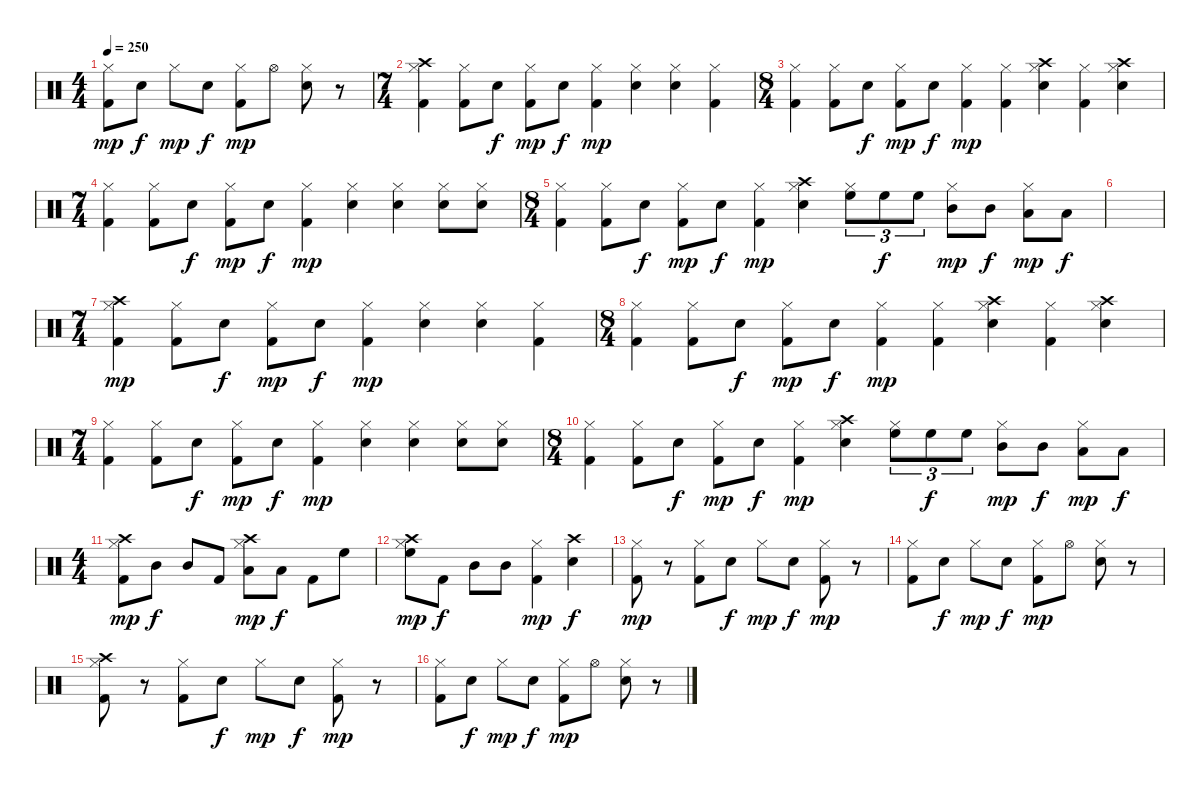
\track "" {instrument percussion}
\staff {score}
\articulation defaults
\ts (4 4)
\tempo 250
\clef neutral
\ks c
("Kick (hit) 2" "Hi-Hat (closed)").8{dy mp} "Electric Snare (hit)".8{dy f} "Hi-Hat (closed)".8{dy mp} "Electric Snare (hit)".8{dy f} ("Kick (hit) 2" "Hi-Hat (closed)").8{dy mp} "Hi-Hat (open)".8 ("Electric Snare (hit)" "Hi-Hat (closed)").8 r.8 |
\ts (7 4)
("Kick (hit) 2" "Hi-Hat (closed)" "Crash high (hit)").4 ("Kick (hit) 2" "Hi-Hat (closed)").8 "Electric Snare (hit)".8{dy f} ("Kick (hit) 2" "Hi-Hat (closed)").8{dy mp} "Electric Snare (hit)".8{dy f} ("Kick (hit) 2" "Hi-Hat (closed)").4{dy mp} ("Electric Snare (hit)" "Hi-Hat (closed)").4 ("Electric Snare (hit)" "Hi-Hat (closed)").4 ("Kick (hit) 2" "Hi-Hat (closed)").4 |
\ts (8 4)
("Kick (hit) 2" "Hi-Hat (closed)").4 ("Kick (hit) 2" "Hi-Hat (closed)").8 "Electric Snare (hit)".8{dy f} ("Kick (hit) 2" "Hi-Hat (closed)").8{dy mp} "Electric Snare (hit)".8{dy f} ("Kick (hit) 2" "Hi-Hat (closed)").4{dy mp} ("Kick (hit) 2" "Hi-Hat (closed)").4 ("Electric Snare (hit)" "Hi-Hat (closed)" "Crash high (hit)").4 ("Kick (hit) 2" "Hi-Hat (closed)").4 ("Electric Snare (hit)" "Hi-Hat (closed)" "Crash high (hit)").4 |
\ts (7 4)
("Kick (hit) 2" "Hi-Hat (closed)").4 ("Kick (hit) 2" "Hi-Hat (closed)").8 "Electric Snare (hit)".8{dy f} ("Kick (hit) 2" "Hi-Hat (closed)").8{dy mp} "Electric Snare (hit)".8{dy f} ("Kick (hit) 2" "Hi-Hat (closed)").4{dy mp} ("Electric Snare (hit)" "Hi-Hat (closed)").4 ("Electric Snare (hit)" "Hi-Hat (closed)").4 ("Electric Snare (hit)" "Hi-Hat (closed)").8 ("Electric Snare (hit)" "Hi-Hat (closed)").8 |
\ts (8 4)
("Kick (hit) 2" "Hi-Hat (closed)").4 ("Kick (hit) 2" "Hi-Hat (closed)").8 "Electric Snare (hit)".8{dy f} ("Kick (hit) 2" "Hi-Hat (closed)").8{dy mp} "Electric Snare (hit)".8{dy f} ("Kick (hit) 2" "Hi-Hat (closed)").4{dy mp} ("Electric Snare (hit)" "Hi-Hat (closed)" "Crash high (hit)").4 ("High Floor Tom (hit)" "Hi-Hat (closed)").8{tu (3 2) balance 16} "High Floor Tom (hit)".8{tu (3 2) dy f} "High Floor Tom (hit)".8{tu (3 2)} ("Mid Tom (hit)" "Hi-Hat (closed)").8{dy mp balance 8} "Mid Tom (hit)".8{dy f} ("Low Tom (hit)" "Hi-Hat (closed)").8{dy mp balance 0} "Low Tom (hit)".8{dy f} |
|
\ts (7 4)
("Kick (hit) 2" "Hi-Hat (closed)" "Crash high (hit)").4{dy mp} ("Kick (hit) 2" "Hi-Hat (closed)").8 "Electric Snare (hit)".8{dy f} ("Kick (hit) 2" "Hi-Hat (closed)").8{dy mp} "Electric Snare (hit)".8{dy f} ("Kick (hit) 2" "Hi-Hat (closed)").4{dy mp} ("Electric Snare (hit)" "Hi-Hat (closed)").4 ("Electric Snare (hit)" "Hi-Hat (closed)").4 ("Kick (hit) 2" "Hi-Hat (closed)").4 |
\ts (8 4)
("Kick (hit) 2" "Hi-Hat (closed)").4 ("Kick (hit) 2" "Hi-Hat (closed)").8 "Electric Snare (hit)".8{dy f} ("Kick (hit) 2" "Hi-Hat (closed)").8{dy mp} "Electric Snare (hit)".8{dy f} ("Kick (hit) 2" "Hi-Hat (closed)").4{dy mp} ("Kick (hit) 2" "Hi-Hat (closed)").4 ("Electric Snare (hit)" "Hi-Hat (closed)" "Crash high (hit)").4 ("Kick (hit) 2" "Hi-Hat (closed)").4 ("Electric Snare (hit)" "Hi-Hat (closed)" "Crash high (hit)").4 |
\ts (7 4)
("Kick (hit) 2" "Hi-Hat (closed)").4 ("Kick (hit) 2" "Hi-Hat (closed)").8 "Electric Snare (hit)".8{dy f} ("Kick (hit) 2" "Hi-Hat (closed)").8{dy mp} "Electric Snare (hit)".8{dy f} ("Kick (hit) 2" "Hi-Hat (closed)").4{dy mp} ("Electric Snare (hit)" "Hi-Hat (closed)").4 ("Electric Snare (hit)" "Hi-Hat (closed)").4 ("Electric Snare (hit)" "Hi-Hat (closed)").8 ("Electric Snare (hit)" "Hi-Hat (closed)").8 |
\ts (8 4)
("Kick (hit) 2" "Hi-Hat (closed)").4 ("Kick (hit) 2" "Hi-Hat (closed)").8 "Electric Snare (hit)".8{dy f} ("Kick (hit) 2" "Hi-Hat (closed)").8{dy mp} "Electric Snare (hit)".8{dy f} ("Kick (hit) 2" "Hi-Hat (closed)").4{dy mp} ("Electric Snare (hit)" "Hi-Hat (closed)" "Crash high (hit)").4 ("High Floor Tom (hit)" "Hi-Hat (closed)").8{tu (3 2) balance 16} "High Floor Tom (hit)".8{tu (3 2) dy f} "High Floor Tom (hit)".8{tu (3 2)} ("Mid Tom (hit)" "Hi-Hat (closed)").8{dy mp balance 8} "Mid Tom (hit)".8{dy f} ("Low Tom (hit)" "Hi-Hat (closed)").8{dy mp balance 0} "Low Tom (hit)".8{dy f} |
\ts (4 4)
("Hi-Hat (closed)" "Kick (hit) 2" "Crash high (hit)").8{dy mp} "Mid Tom (hit)".8{dy f} "Mid Tom (hit)".8 "Kick (hit) 2".8 ("Hi-Hat (closed)" "Low Tom (hit)" "Crash high (hit)").8{dy mp balance 2} "Low Tom (hit)".8{dy f} "Kick (hit) 2".8{balance 8} "High Floor Tom (hit)".8{balance 14} |
("Hi-Hat (closed)" "High Floor Tom (hit)" "Crash high (hit)").8{dy mp} "Kick (hit) 2".8{dy f balance 8} "Mid Tom (hit)".8 "Mid Tom (hit)".8 ("Hi-Hat (closed)" "Kick (hit) 2").4{dy mp} ("Electric Snare (hit)" "Crash high (hit)").4{dy f} |
("Kick (hit) 2" "Hi-Hat (closed)").8{dy mp} r.8 ("Kick (hit) 2" "Hi-Hat (closed)").8 "Electric Snare (hit)".8{dy f} "Hi-Hat (closed)".8{dy mp} "Electric Snare (hit)".8{dy f} ("Kick (hit) 2" "Hi-Hat (closed)").8{dy mp} r.8 |
("Kick (hit) 2" "Hi-Hat (closed)").8 "Electric Snare (hit)".8{dy f} "Hi-Hat (closed)".8{dy mp} "Electric Snare (hit)".8{dy f} ("Kick (hit) 2" "Hi-Hat (closed)").8{dy mp} "Hi-Hat (open)".8 ("Electric Snare (hit)" "Hi-Hat (closed)").8 r.8 |
("Kick (hit) 2" "Hi-Hat (closed)" "Crash high (hit)").8 r.8 ("Kick (hit) 2" "Hi-Hat (closed)").8 "Electric Snare (hit)".8{dy f} "Hi-Hat (closed)".8{dy mp} "Electric Snare (hit)".8{dy f} ("Kick (hit) 2" "Hi-Hat (closed)").8{dy mp} r.8 |
("Kick (hit) 2" "Hi-Hat (closed)").8 "Electric Snare (hit)".8{dy f} "Hi-Hat (closed)".8{dy mp} "Electric Snare (hit)".8{dy f} ("Kick (hit) 2" "Hi-Hat (closed)").8{dy mp} "Hi-Hat (open)".8 ("Electric Snare (hit)" "Hi-Hat (closed)").8 r.8
